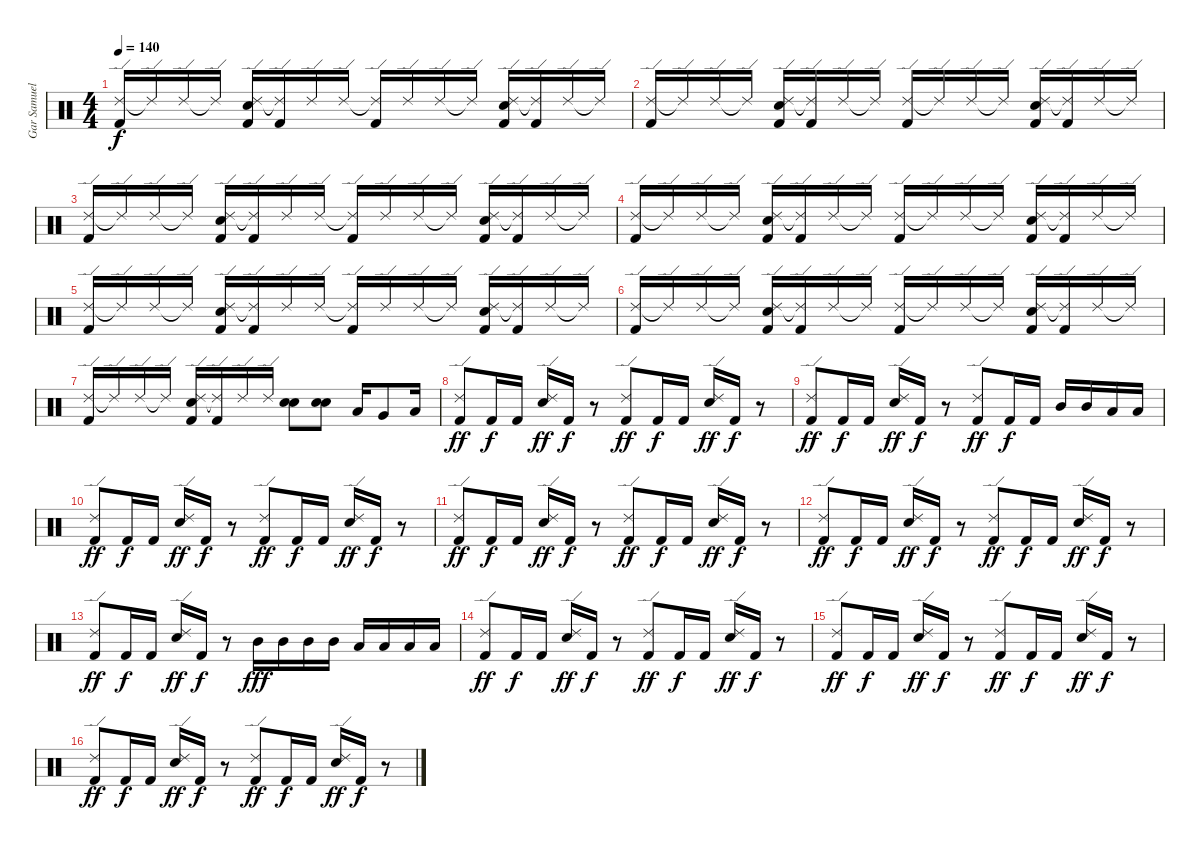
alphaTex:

\track ("Gar Samuelson" "Gar Samuel") {instrument percussion}
\staff {score}
\articulation defaults
\ts (4 4)
\tempo 140
\clef neutral
\ks c
("Ride (edge) 2" "Kick (hit) 2").16{dy f} "Ride (edge) 2"{t}.16 "Ride (edge) 2".16 "Ride (edge) 2"{t}.16 ("Ride (edge) 2" "Snare (hit) 2" "Kick (hit) 2").16 ("Ride (edge) 2"{t} "Kick (hit) 2").16 "Ride (edge) 2".16 "Ride (edge) 2".16 ("Ride (edge) 2"{t} "Kick (hit) 2").16 "Ride (edge) 2".16 "Ride (edge) 2".16 "Ride (edge) 2"{t}.16 ("Ride (edge) 2" "Snare (hit) 2" "Kick (hit) 2").16 ("Ride (edge) 2"{t} "Kick (hit) 2").16 "Ride (edge) 2".16 "Ride (edge) 2"{t}.16 |
("Ride (edge) 2" "Kick (hit) 2").16 "Ride (edge) 2"{t}.16 "Ride (edge) 2".16 "Ride (edge) 2"{t}.16 ("Ride (edge) 2" "Snare (hit) 2" "Kick (hit) 2").16 ("Ride (edge) 2"{t} "Kick (hit) 2").16 "Ride (edge) 2".16 "Ride (edge) 2"{t}.16 ("Ride (edge) 2" "Kick (hit) 2").16 "Ride (edge) 2"{t}.16 "Ride (edge) 2".16 "Ride (edge) 2"{t}.16 ("Ride (edge) 2" "Snare (hit) 2" "Kick (hit) 2").16 ("Ride (edge) 2"{t} "Kick (hit) 2").16 "Ride (edge) 2".16 "Ride (edge) 2"{t}.16 |
("Ride (edge) 2" "Kick (hit) 2").16 "Ride (edge) 2"{t}.16 "Ride (edge) 2".16 "Ride (edge) 2"{t}.16 ("Ride (edge) 2" "Snare (hit) 2" "Kick (hit) 2").16 ("Ride (edge) 2"{t} "Kick (hit) 2").16 "Ride (edge) 2".16 "Ride (edge) 2".16 ("Ride (edge) 2"{t} "Kick (hit) 2").16 "Ride (edge) 2".16 "Ride (edge) 2".16 "Ride (edge) 2"{t}.16 ("Ride (edge) 2" "Snare (hit) 2" "Kick (hit) 2").16 ("Ride (edge) 2"{t} "Kick (hit) 2").16 "Ride (edge) 2".16 "Ride (edge) 2"{t}.16 |
("Ride (edge) 2" "Kick (hit) 2").16 "Ride (edge) 2"{t}.16 "Ride (edge) 2".16 "Ride (edge) 2"{t}.16 ("Ride (edge) 2" "Snare (hit) 2" "Kick (hit) 2").16 ("Ride (edge) 2"{t} "Kick (hit) 2").16 "Ride (edge) 2".16 "Ride (edge) 2"{t}.16 ("Ride (edge) 2" "Kick (hit) 2").16 "Ride (edge) 2"{t}.16 "Ride (edge) 2".16 "Ride (edge) 2"{t}.16 ("Ride (edge) 2" "Snare (hit) 2" "Kick (hit) 2").16 ("Ride (edge) 2"{t} "Kick (hit) 2").16 "Ride (edge) 2".16 "Ride (edge) 2"{t}.16 |
("Ride (edge) 2" "Kick (hit) 2").16 "Ride (edge) 2"{t}.16 "Ride (edge) 2".16 "Ride (edge) 2"{t}.16 ("Ride (edge) 2" "Snare (hit) 2" "Kick (hit) 2").16 ("Ride (edge) 2"{t} "Kick (hit) 2").16 "Ride (edge) 2".16 "Ride (edge) 2".16 ("Ride (edge) 2"{t} "Kick (hit) 2").16 "Ride (edge) 2".16 "Ride (edge) 2".16 "Ride (edge) 2"{t}.16 ("Ride (edge) 2" "Snare (hit) 2" "Kick (hit) 2").16 ("Ride (edge) 2"{t} "Kick (hit) 2").16 "Ride (edge) 2".16 "Ride (edge) 2"{t}.16 |
("Ride (edge) 2" "Kick (hit) 2").16 "Ride (edge) 2"{t}.16 "Ride (edge) 2".16 "Ride (edge) 2"{t}.16 ("Ride (edge) 2" "Snare (hit) 2" "Kick (hit) 2").16 ("Ride (edge) 2"{t} "Kick (hit) 2").16 "Ride (edge) 2".16 "Ride (edge) 2"{t}.16 ("Ride (edge) 2" "Kick (hit) 2").16 "Ride (edge) 2"{t}.16 "Ride (edge) 2".16 "Ride (edge) 2"{t}.16 ("Ride (edge) 2" "Snare (hit) 2" "Kick (hit) 2").16 ("Ride (edge) 2"{t} "Kick (hit) 2").16 "Ride (edge) 2".16 "Ride (edge) 2"{t}.16 |
("Ride (edge) 2" "Kick (hit) 2").16 "Ride (edge) 2"{t}.16 "Ride (edge) 2".16 "Ride (edge) 2"{t}.16 ("Ride (edge) 2" "Snare (hit) 2" "Kick (hit) 2").16 ("Ride (edge) 2"{t} "Kick (hit) 2").16 "Ride (edge) 2".16 "Ride (edge) 2".16 ("Electric Snare (hit)" "Electric Snare (hit)").8 ("Electric Snare (hit)" "Electric Snare (hit)").8 "Low Tom (hit)".16 "Very Low Tom (hit)".8 "Low Floor Tom (hit)".16 |
("Ride (edge) 2" "Kick (hit) 2").8{dy ff} "Kick (hit) 2".16{dy f} "Kick (hit) 2".16 ("Ride (edge) 2" "Snare (hit) 2").16{dy ff} "Kick (hit) 2".16{dy f} r.8 ("Ride (edge) 2" "Kick (hit) 2").8{dy ff} "Kick (hit) 2".16{dy f} "Kick (hit) 2".16 ("Ride (edge) 2" "Snare (hit) 2").16{dy ff} "Kick (hit) 2".16{dy f} r.8 |
("Ride (edge) 2" "Kick (hit) 2").8{dy ff} "Kick (hit) 2".16{dy f} "Kick (hit) 2".16 ("Ride (edge) 2" "Snare (hit) 2").16{dy ff} "Kick (hit) 2".16{dy f} r.8 ("Ride (edge) 2" "Kick (hit) 2").8{dy ff} "Kick (hit) 2".16{dy f} "Kick (hit) 2".16 "Mid Tom (hit)".16 "Mid Tom (hit)".16 "Low Tom (hit)".16 "Low Tom (hit)".16 |
("Ride (edge) 2" "Kick (hit) 2").8{dy ff} "Kick (hit) 2".16{dy f} "Kick (hit) 2".16 ("Ride (edge) 2" "Snare (hit) 2").16{dy ff} "Kick (hit) 2".16{dy f} r.8 ("Ride (edge) 2" "Kick (hit) 2").8{dy ff} "Kick (hit) 2".16{dy f} "Kick (hit) 2".16 ("Ride (edge) 2" "Snare (hit) 2").16{dy ff} "Kick (hit) 2".16{dy f} r.8 |
("Ride (edge) 2" "Kick (hit) 2").8{dy ff} "Kick (hit) 2".16{dy f} "Kick (hit) 2".16 ("Ride (edge) 2" "Snare (hit) 2").16{dy ff} "Kick (hit) 2".16{dy f} r.8 ("Ride (edge) 2" "Kick (hit) 2").8{dy ff} "Kick (hit) 2".16{dy f} "Kick (hit) 2".16 ("Ride (edge) 2" "Snare (hit) 2").16{dy ff} "Kick (hit) 2".16{dy f} r.8 |
("Ride (edge) 2" "Kick (hit) 2").8{dy ff} "Kick (hit) 2".16{dy f} "Kick (hit) 2".16 ("Ride (edge) 2" "Snare (hit) 2").16{dy ff} "Kick (hit) 2".16{dy f} r.8 ("Ride (edge) 2" "Kick (hit) 2").8{dy ff} "Kick (hit) 2".16{dy f} "Kick (hit) 2".16 ("Ride (edge) 2" "Snare (hit) 2").16{dy ff} "Kick (hit) 2".16{dy f} r.8 |
("Ride (edge) 2" "Kick (hit) 2").8{dy ff} "Kick (hit) 2".16{dy f} "Kick (hit) 2".16 ("Ride (edge) 2" "Snare (hit) 2").16{dy ff} "Kick (hit) 2".16{dy f} r.8 "Mid Tom (hit)".16{dy fff} "Mid Tom (hit)".16 "Mid Tom (hit)".16 "Mid Tom (hit)".16 "Low Tom (hit)".16 "Low Tom (hit)".16 "Low Tom (hit)".16 "Low Tom (hit)".16 |
("Ride (edge) 2" "Kick (hit) 2").8{dy ff} "Kick (hit) 2".16{dy f} "Kick (hit) 2".16 ("Ride (edge) 2" "Snare (hit) 2").16{dy ff} "Kick (hit) 2".16{dy f} r.8 ("Ride (edge) 2" "Kick (hit) 2").8{dy ff} "Kick (hit) 2".16{dy f} "Kick (hit) 2".16 ("Ride (edge) 2" "Snare (hit) 2").16{dy ff} "Kick (hit) 2".16{dy f} r.8 |
("Ride (edge) 2" "Kick (hit) 2").8{dy ff} "Kick (hit) 2".16{dy f} "Kick (hit) 2".16 ("Ride (edge) 2" "Snare (hit) 2").16{dy ff} "Kick (hit) 2".16{dy f} r.8 ("Ride (edge) 2" "Kick (hit) 2").8{dy ff} "Kick (hit) 2".16{dy f} "Kick (hit) 2".16 ("Ride (edge) 2" "Snare (hit) 2").16{dy ff} "Kick (hit) 2".16{dy f} r.8 |
("Ride (edge) 2" "Kick (hit) 2").8{dy ff} "Kick (hit) 2".16{dy f} "Kick (hit) 2".16 ("Ride (edge) 2" "Snare (hit) 2").16{dy ff} "Kick (hit) 2".16{dy f} r.8 ("Ride (edge) 2" "Kick (hit) 2").8{dy ff} "Kick (hit) 2".16{dy f} "Kick (hit) 2".16 ("Ride (edge) 2" "Snare (hit) 2").16{dy ff} "Kick (hit) 2".16{dy f} r.8
